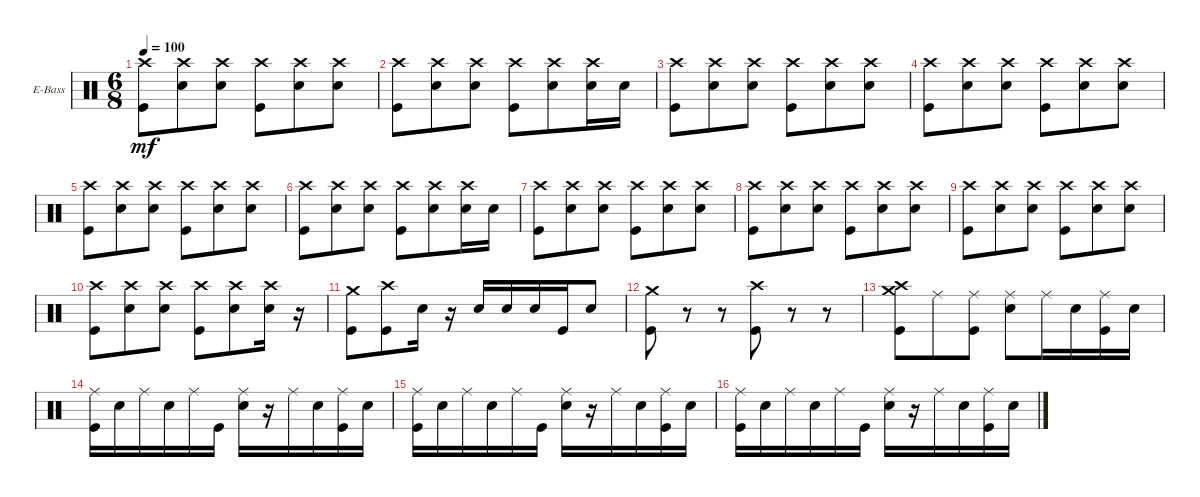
\defaultSystemsLayout 4
\bracketExtendMode groupsimilarinstruments
\firstSystemTrackNameOrientation horizontal
\otherSystemsTrackNameOrientation horizontal
\track ("Drums" "E-Bass") {instrument percussion}
\staff {score}
\articulation defaults
\ts (6 8)
\tempo 100
\clef neutral
\ks c
("Crash high (hit)" "Kick (hit)").8{dy mf} ("Crash high (hit)" "Snare (hit) 2").8 ("Crash high (hit)" "Snare (hit) 2").8 ("Crash high (hit)" "Kick (hit)").8 ("Snare (hit) 2" "Crash high (hit)").8 ("Snare (hit) 2" "Crash high (hit)").8 |
("Crash high (hit)" "Kick (hit)").8 ("Crash high (hit)" "Snare (hit) 2").8 ("Crash high (hit)" "Snare (hit) 2").8 ("Crash high (hit)" "Kick (hit)").8 ("Snare (hit) 2" "Crash high (hit)").8 ("Snare (hit) 2" "Crash high (hit)").16 "Snare (hit) 2".16 |
("Crash high (hit)" "Kick (hit)").8 ("Crash high (hit)" "Snare (hit) 2").8 ("Crash high (hit)" "Snare (hit) 2").8 ("Crash high (hit)" "Kick (hit)").8 ("Snare (hit) 2" "Crash high (hit)").8 ("Snare (hit) 2" "Crash high (hit)").8 |
("Crash high (hit)" "Kick (hit)").8 ("Crash high (hit)" "Snare (hit) 2").8 ("Crash high (hit)" "Snare (hit) 2").8 ("Crash high (hit)" "Kick (hit)").8 ("Snare (hit) 2" "Crash high (hit)").8 ("Snare (hit) 2" "Crash high (hit)").8 |
("Crash high (hit)" "Kick (hit)").8 ("Crash high (hit)" "Snare (hit) 2").8 ("Crash high (hit)" "Snare (hit) 2").8 ("Crash high (hit)" "Kick (hit)").8 ("Snare (hit) 2" "Crash high (hit)").8 ("Snare (hit) 2" "Crash high (hit)").8 |
("Crash high (hit)" "Kick (hit)").8 ("Crash high (hit)" "Snare (hit) 2").8 ("Crash high (hit)" "Snare (hit) 2").8 ("Crash high (hit)" "Kick (hit)").8 ("Snare (hit) 2" "Crash high (hit)").8 ("Snare (hit) 2" "Crash high (hit)").16 "Snare (hit) 2".16 |
("Crash high (hit)" "Kick (hit)").8 ("Crash high (hit)" "Snare (hit) 2").8 ("Crash high (hit)" "Snare (hit) 2").8 ("Crash high (hit)" "Kick (hit)").8 ("Snare (hit) 2" "Crash high (hit)").8 ("Snare (hit) 2" "Crash high (hit)").8 |
("Crash high (hit)" "Kick (hit)").8 ("Crash high (hit)" "Snare (hit) 2").8 ("Crash high (hit)" "Snare (hit) 2").8 ("Crash high (hit)" "Kick (hit)").8 ("Snare (hit) 2" "Crash high (hit)").8 ("Snare (hit) 2" "Crash high (hit)").8 |
("Crash high (hit)" "Kick (hit)").8 ("Crash high (hit)" "Snare (hit) 2").8 ("Crash high (hit)" "Snare (hit) 2").8 ("Crash high (hit)" "Kick (hit)").8 ("Snare (hit) 2" "Crash high (hit)").8 ("Snare (hit) 2" "Crash high (hit)").8 |
("Crash high (hit)" "Kick (hit)").8 ("Crash high (hit)" "Snare (hit) 2").8 ("Crash high (hit)" "Snare (hit) 2").8 ("Crash high (hit)" "Kick (hit)").8 ("Snare (hit) 2" "Crash high (hit)").8 ("Snare (hit) 2" "Crash high (hit)").16 r.16 |
("Kick (hit)" "Crash medium (hit)").8 ("Kick (hit)" "Crash high (hit)").8 "Snare (hit) 2".16 r.16 "Snare (hit) 2".16 "Snare (hit) 2".16 "Snare (hit) 2".16 "Kick (hit)".16 "Snare (hit) 2".8 |
("Kick (hit)" "Crash medium (hit)").8 r.8 r.8 ("Kick (hit)" "Crash high (hit)").8 r.8 r.8 |
("Kick (hit)" "Crash medium (hit)" "Crash high (hit)").8 "Ride (middle)".8 ("Ride (middle)" "Kick (hit)").8 ("Ride (middle)" "Snare (hit) 2").8 "Ride (middle)".16 "Snare (hit) 2".16 ("Ride (middle)" "Kick (hit)").16 "Snare (hit) 2".16 |
("Ride (middle)" "Kick (hit)").16 "Snare (hit) 2".16 "Ride (middle)".16 "Snare (hit) 2".16 "Ride (middle)".16 "Kick (hit)".16 ("Snare (hit) 2" "Ride (middle)").16 r.16 "Ride (middle)".16 "Snare (hit) 2".16 ("Ride (middle)" "Kick (hit)").16 "Snare (hit) 2".16 |
("Ride (middle)" "Kick (hit)").16 "Snare (hit) 2".16 "Ride (middle)".16 "Snare (hit) 2".16 "Ride (middle)".16 "Kick (hit)".16 ("Ride (middle)" "Snare (hit) 2").16 r.16 "Ride (middle)".16 "Snare (hit) 2".16 ("Ride (middle)" "Kick (hit)").16 "Snare (hit) 2".16 |
("Ride (middle)" "Kick (hit)").16 "Snare (hit) 2".16 "Ride (middle)".16 "Snare (hit) 2".16 "Ride (middle)".16 "Kick (hit)".16 ("Ride (middle)" "Snare (hit) 2").16 r.16 "Ride (middle)".16 "Snare (hit) 2".16 ("Ride (middle)" "Kick (hit)").16 "Snare (hit) 2".16
